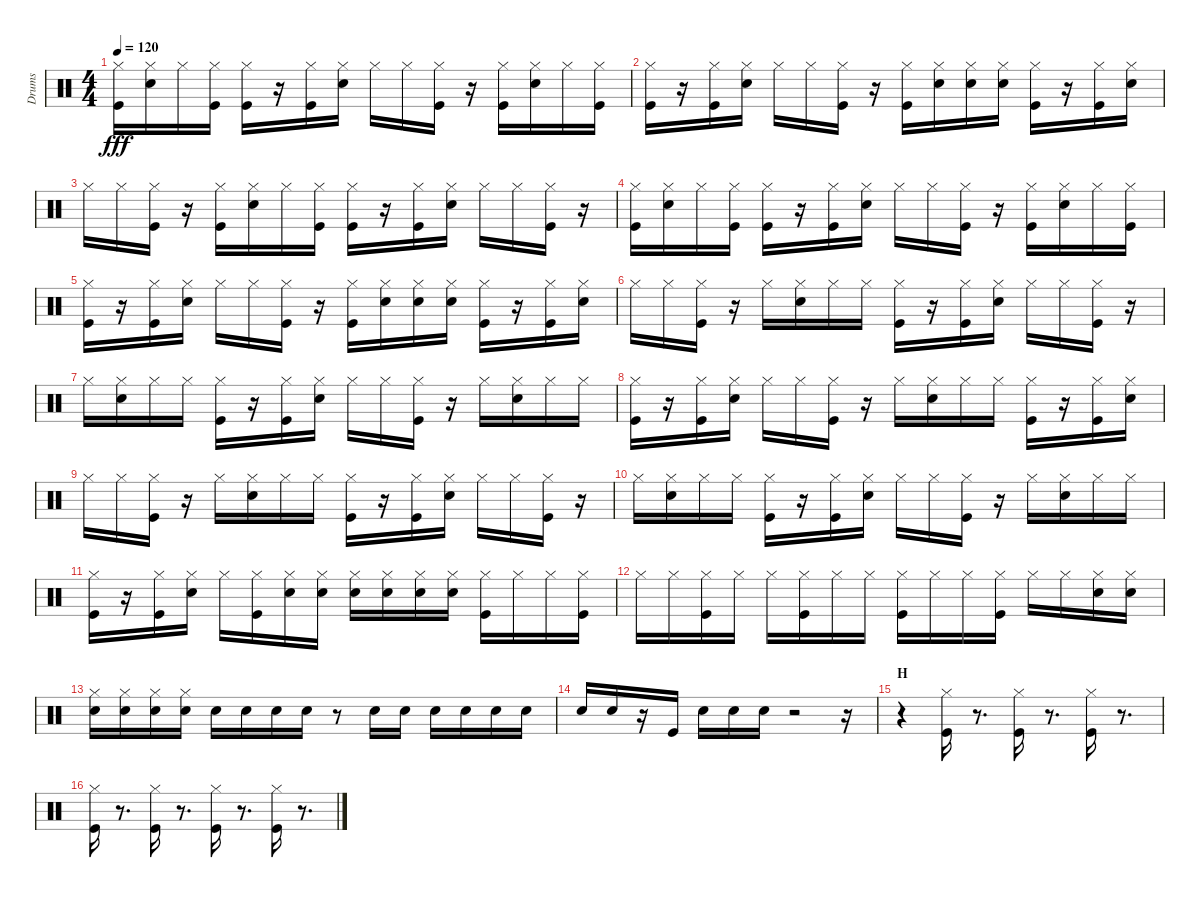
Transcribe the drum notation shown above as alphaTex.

\track ("Drums" "Drums") {instrument percussion}
\staff {score}
\articulation defaults
\ts (4 4)
\tempo 120
\clef neutral
\ks c
("Kick (hit)" "Hi-Hat (closed)").16{dy fff} ("Snare (hit) 2" "Hi-Hat (closed)").16 "Hi-Hat (closed)".16 ("Kick (hit)" "Hi-Hat (closed)").16 ("Kick (hit)" "Hi-Hat (closed)").16 r.16 ("Kick (hit)" "Hi-Hat (closed)").16 ("Snare (hit) 2" "Hi-Hat (closed)").16 "Hi-Hat (closed)".16 "Hi-Hat (closed)".16 ("Kick (hit)" "Hi-Hat (closed)").16 r.16 ("Kick (hit)" "Hi-Hat (closed)").16 ("Snare (hit) 2" "Hi-Hat (closed)").16 "Hi-Hat (closed)".16 ("Kick (hit)" "Hi-Hat (closed)").16 |
("Kick (hit)" "Hi-Hat (closed)").16 r.16 ("Kick (hit)" "Hi-Hat (closed)").16 ("Snare (hit) 2" "Hi-Hat (closed)").16 "Hi-Hat (closed)".16 "Hi-Hat (closed)".16 ("Kick (hit)" "Hi-Hat (closed)").16 r.16 ("Kick (hit)" "Hi-Hat (closed)").16 ("Snare (hit) 2" "Hi-Hat (closed)").16 ("Snare (hit) 2" "Hi-Hat (closed)").16 ("Snare (hit) 2" "Hi-Hat (closed)").16 ("Kick (hit)" "Hi-Hat (closed)").16 r.16 ("Kick (hit)" "Hi-Hat (closed)").16 ("Snare (hit) 2" "Hi-Hat (closed)").16 |
"Hi-Hat (closed)".16 "Hi-Hat (closed)".16 ("Kick (hit)" "Hi-Hat (closed)").16 r.16 ("Kick (hit)" "Hi-Hat (closed)").16 ("Snare (hit) 2" "Hi-Hat (closed)").16 "Hi-Hat (closed)".16 ("Kick (hit)" "Hi-Hat (closed)").16 ("Kick (hit)" "Hi-Hat (closed)").16 r.16 ("Kick (hit)" "Hi-Hat (closed)").16 ("Snare (hit) 2" "Hi-Hat (closed)").16 "Hi-Hat (closed)".16 "Hi-Hat (closed)".16 ("Kick (hit)" "Hi-Hat (closed)").16 r.16 |
("Kick (hit)" "Hi-Hat (closed)").16 ("Snare (hit) 2" "Hi-Hat (closed)").16 "Hi-Hat (closed)".16 ("Kick (hit)" "Hi-Hat (closed)").16 ("Kick (hit)" "Hi-Hat (closed)").16 r.16 ("Kick (hit)" "Hi-Hat (closed)").16 ("Snare (hit) 2" "Hi-Hat (closed)").16 "Hi-Hat (closed)".16 "Hi-Hat (closed)".16 ("Kick (hit)" "Hi-Hat (closed)").16 r.16 ("Kick (hit)" "Hi-Hat (closed)").16 ("Snare (hit) 2" "Hi-Hat (closed)").16 "Hi-Hat (closed)".16 ("Kick (hit)" "Hi-Hat (closed)").16 |
("Kick (hit)" "Hi-Hat (closed)").16 r.16 ("Kick (hit)" "Hi-Hat (closed)").16 ("Snare (hit) 2" "Hi-Hat (closed)").16 "Hi-Hat (closed)".16 "Hi-Hat (closed)".16 ("Kick (hit)" "Hi-Hat (closed)").16 r.16 ("Kick (hit)" "Hi-Hat (closed)").16 ("Snare (hit) 2" "Hi-Hat (closed)").16 ("Snare (hit) 2" "Hi-Hat (closed)").16 ("Snare (hit) 2" "Hi-Hat (closed)").16 ("Kick (hit)" "Hi-Hat (closed)").16 r.16 ("Kick (hit)" "Hi-Hat (closed)").16 ("Snare (hit) 2" "Hi-Hat (closed)").16 |
"Hi-Hat (closed)".16 "Hi-Hat (closed)".16 ("Kick (hit)" "Hi-Hat (closed)").16 r.16 "Hi-Hat (closed)".16 ("Snare (hit) 2" "Hi-Hat (closed)").16 "Hi-Hat (closed)".16 "Hi-Hat (closed)".16 ("Kick (hit)" "Hi-Hat (closed)").16 r.16 ("Kick (hit)" "Hi-Hat (closed)").16 ("Snare (hit) 2" "Hi-Hat (closed)").16 "Hi-Hat (closed)".16 "Hi-Hat (closed)".16 ("Kick (hit)" "Hi-Hat (closed)").16 r.16 |
"Hi-Hat (closed)".16 ("Snare (hit) 2" "Hi-Hat (closed)").16 "Hi-Hat (closed)".16 "Hi-Hat (closed)".16 ("Kick (hit)" "Hi-Hat (closed)").16 r.16 ("Kick (hit)" "Hi-Hat (closed)").16 ("Snare (hit) 2" "Hi-Hat (closed)").16 "Hi-Hat (closed)".16 "Hi-Hat (closed)".16 ("Kick (hit)" "Hi-Hat (closed)").16 r.16 "Hi-Hat (closed)".16 ("Snare (hit) 2" "Hi-Hat (closed)").16 "Hi-Hat (closed)".16 "Hi-Hat (closed)".16 |
("Kick (hit)" "Hi-Hat (closed)").16 r.16 ("Kick (hit)" "Hi-Hat (closed)").16 ("Snare (hit) 2" "Hi-Hat (closed)").16 "Hi-Hat (closed)".16 "Hi-Hat (closed)".16 ("Kick (hit)" "Hi-Hat (closed)").16 r.16 "Hi-Hat (closed)".16 ("Snare (hit) 2" "Hi-Hat (closed)").16 "Hi-Hat (closed)".16 "Hi-Hat (closed)".16 ("Kick (hit)" "Hi-Hat (closed)").16 r.16 ("Kick (hit)" "Hi-Hat (closed)").16 ("Snare (hit) 2" "Hi-Hat (closed)").16 |
"Hi-Hat (closed)".16 "Hi-Hat (closed)".16 ("Kick (hit)" "Hi-Hat (closed)").16 r.16 "Hi-Hat (closed)".16 ("Snare (hit) 2" "Hi-Hat (closed)").16 "Hi-Hat (closed)".16 "Hi-Hat (closed)".16 ("Kick (hit)" "Hi-Hat (closed)").16 r.16 ("Kick (hit)" "Hi-Hat (closed)").16 ("Snare (hit) 2" "Hi-Hat (closed)").16 "Hi-Hat (closed)".16 "Hi-Hat (closed)".16 ("Kick (hit)" "Hi-Hat (closed)").16 r.16 |
"Hi-Hat (closed)".16 ("Snare (hit) 2" "Hi-Hat (closed)").16 "Hi-Hat (closed)".16 "Hi-Hat (closed)".16 ("Kick (hit)" "Hi-Hat (closed)").16 r.16 ("Kick (hit)" "Hi-Hat (closed)").16 ("Snare (hit) 2" "Hi-Hat (closed)").16 "Hi-Hat (closed)".16 "Hi-Hat (closed)".16 ("Kick (hit)" "Hi-Hat (closed)").16 r.16 "Hi-Hat (closed)".16 ("Snare (hit) 2" "Hi-Hat (closed)").16 "Hi-Hat (closed)".16 "Hi-Hat (closed)".16 |
("Kick (hit)" "Hi-Hat (closed)").16 r.16 ("Kick (hit)" "Hi-Hat (closed)").16 ("Snare (hit) 2" "Hi-Hat (closed)").16 "Hi-Hat (closed)".16 ("Kick (hit)" "Hi-Hat (closed)").16 ("Snare (hit) 2" "Hi-Hat (closed)").16 ("Snare (hit) 2" "Hi-Hat (closed)").16 ("Snare (hit) 2" "Hi-Hat (closed)").16 ("Snare (hit) 2" "Hi-Hat (closed)").16 ("Snare (hit) 2" "Hi-Hat (closed)").16 ("Snare (hit) 2" "Hi-Hat (closed)").16 ("Kick (hit)" "Hi-Hat (closed)").16 "Hi-Hat (closed)".16 "Hi-Hat (closed)".16 ("Kick (hit)" "Hi-Hat (closed)").16 |
"Hi-Hat (closed)".16 "Hi-Hat (closed)".16 ("Kick (hit)" "Hi-Hat (closed)").16 "Hi-Hat (closed)".16 "Hi-Hat (closed)".16 ("Kick (hit)" "Hi-Hat (closed)").16 "Hi-Hat (closed)".16 "Hi-Hat (closed)".16 ("Kick (hit)" "Hi-Hat (closed)").16 "Hi-Hat (closed)".16 "Hi-Hat (closed)".16 ("Kick (hit)" "Hi-Hat (closed)").16 "Hi-Hat (closed)".16 "Hi-Hat (closed)".16 ("Snare (hit) 2" "Hi-Hat (closed)").16 ("Snare (hit) 2" "Hi-Hat (closed)").16 |
("Snare (hit) 2" "Hi-Hat (closed)").16 ("Snare (hit) 2" "Hi-Hat (closed)").16 ("Snare (hit) 2" "Hi-Hat (closed)").16 ("Snare (hit) 2" "Hi-Hat (closed)").16 "Snare (hit) 2".16 "Snare (hit) 2".16 "Snare (hit) 2".16 "Snare (hit) 2".16 r.8 "Snare (hit) 2".16 "Snare (hit) 2".16 "Snare (hit) 2".16 "Snare (hit) 2".16 "Snare (hit) 2".16 "Snare (hit) 2".16 |
"Snare (hit) 2".16 "Snare (hit) 2".16 r.16 "Kick (hit)".16 "Snare (hit) 2".16 "Snare (hit) 2".16 "Snare (hit) 2".16 r.2 r.16 |
\section ("" "H")
r.4 ("Kick (hit)" "Hi-Hat (closed)").16 r.8{d} ("Kick (hit)" "Hi-Hat (closed)").16 r.8{d} ("Kick (hit)" "Hi-Hat (closed)").16 r.8{d} |
("Kick (hit)" "Hi-Hat (closed)").16 r.8{d} ("Kick (hit)" "Hi-Hat (closed)").16 r.8{d} ("Kick (hit)" "Hi-Hat (closed)").16 r.8{d} ("Kick (hit)" "Hi-Hat (closed)").16 r.8{d}
